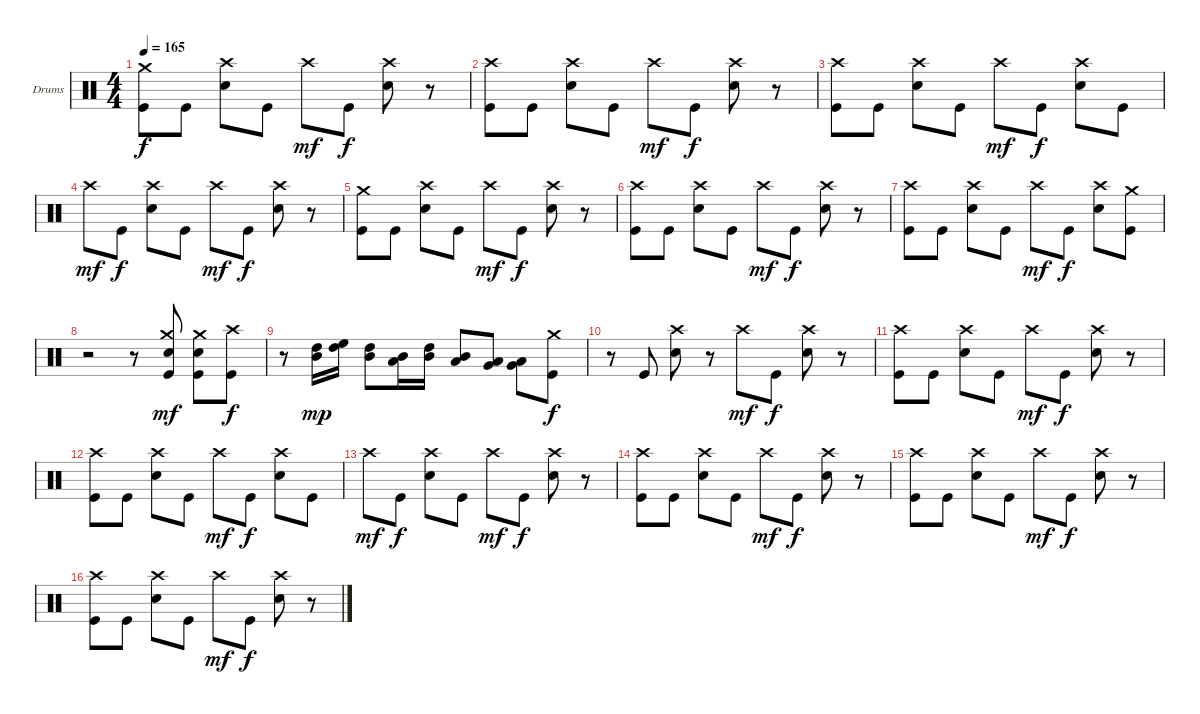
\bracketExtendMode groupsimilarinstruments
\firstSystemTrackNameOrientation horizontal
\otherSystemsTrackNameOrientation horizontal
\track ("Drumkit Midi" "Drums") {instrument percussion}
\staff {score}
\articulation defaults
\ts (4 4)
\tempo 165
\clef neutral
\ks c
("Kick (hit)" "Crash medium (hit)").8{dy f} "Kick (hit)".8 ("Snare (hit) 2" "Crash high (hit)").8 "Kick (hit)".8 "Crash high (hit)".8{dy mf} "Kick (hit)".8{dy f} ("Snare (hit) 2" "Crash high (hit)").8 r.8 |
("Kick (hit)" "Crash high (hit)").8 "Kick (hit)".8 ("Snare (hit) 2" "Crash high (hit)").8 "Kick (hit)".8 "Crash high (hit)".8{dy mf} "Kick (hit)".8{dy f} ("Snare (hit) 2" "Crash high (hit)").8 r.8 |
("Kick (hit)" "Crash high (hit)").8 "Kick (hit)".8 ("Snare (hit) 2" "Crash high (hit)").8 "Kick (hit)".8 "Crash high (hit)".8{dy mf} "Kick (hit)".8{dy f} ("Snare (hit) 2" "Crash high (hit)").8 "Kick (hit)".8 |
"Crash high (hit)".8{dy mf} "Kick (hit)".8{dy f} ("Snare (hit) 2" "Crash high (hit)").8 "Kick (hit)".8 "Crash high (hit)".8{dy mf} "Kick (hit)".8{dy f} ("Snare (hit) 2" "Crash high (hit)").8 r.8 |
("Kick (hit)" "Crash medium (hit)").8 "Kick (hit)".8 ("Snare (hit) 2" "Crash high (hit)").8 "Kick (hit)".8 "Crash high (hit)".8{dy mf} "Kick (hit)".8{dy f} ("Snare (hit) 2" "Crash high (hit)").8 r.8 |
("Kick (hit)" "Crash high (hit)").8 "Kick (hit)".8 ("Snare (hit) 2" "Crash high (hit)").8 "Kick (hit)".8 "Crash high (hit)".8{dy mf} "Kick (hit)".8{dy f} ("Snare (hit) 2" "Crash high (hit)").8 r.8 |
("Kick (hit)" "Crash high (hit)").8 "Kick (hit)".8 ("Snare (hit) 2" "Crash high (hit)").8 "Kick (hit)".8 "Crash high (hit)".8{dy mf} "Kick (hit)".8{dy f} ("Snare (hit) 2" "Crash high (hit)").8 ("Kick (hit)" "Crash medium (hit)").8 |
r.2 r.8 ("Kick (hit)" "Snare (hit) 2" "Crash medium (hit)").8{dy mf} ("Kick (hit)" "Snare (hit) 2" "Crash medium (hit)").8 ("Kick (hit)" "Crash high (hit)").8{dy f} |
r.8 ("High Tom (hit)" "Mid Tom (hit)").16{dy mp} ("High Floor Tom (hit)" "High Tom (hit)").16 ("High Tom (hit)" "Mid Tom (hit)").8 ("Mid Tom (hit)" "Low Tom (hit)").16 ("High Tom (hit)" "Mid Tom (hit)").16 ("Mid Tom (hit)" "Low Tom (hit)").8 ("Low Tom (hit)" "Very Low Tom (hit)").8 ("Very Low Tom (hit)" "Low Tom (hit)").8 ("Kick (hit)" "Crash medium (hit)").8{dy f} |
r.8 "Kick (hit)".8 ("Snare (hit) 2" "Crash high (hit)").8 r.8 "Crash high (hit)".8{dy mf} "Kick (hit)".8{dy f} ("Snare (hit) 2" "Crash high (hit)").8 r.8 |
("Kick (hit)" "Crash high (hit)").8 "Kick (hit)".8 ("Snare (hit) 2" "Crash high (hit)").8 "Kick (hit)".8 "Crash high (hit)".8{dy mf} "Kick (hit)".8{dy f} ("Snare (hit) 2" "Crash high (hit)").8 r.8 |
("Kick (hit)" "Crash high (hit)").8 "Kick (hit)".8 ("Snare (hit) 2" "Crash high (hit)").8 "Kick (hit)".8 "Crash high (hit)".8{dy mf} "Kick (hit)".8{dy f} ("Snare (hit) 2" "Crash high (hit)").8 "Kick (hit)".8 |
"Crash high (hit)".8{dy mf} "Kick (hit)".8{dy f} ("Snare (hit) 2" "Crash high (hit)").8 "Kick (hit)".8 "Crash high (hit)".8{dy mf} "Kick (hit)".8{dy f} ("Snare (hit) 2" "Crash high (hit)").8 r.8 |
("Kick (hit)" "Crash high (hit)").8 "Kick (hit)".8 ("Snare (hit) 2" "Crash high (hit)").8 "Kick (hit)".8 "Crash high (hit)".8{dy mf} "Kick (hit)".8{dy f} ("Snare (hit) 2" "Crash high (hit)").8 r.8 |
("Kick (hit)" "Crash high (hit)").8 "Kick (hit)".8 ("Snare (hit) 2" "Crash high (hit)").8 "Kick (hit)".8 "Crash high (hit)".8{dy mf} "Kick (hit)".8{dy f} ("Snare (hit) 2" "Crash high (hit)").8 r.8 |
("Kick (hit)" "Crash high (hit)").8 "Kick (hit)".8 ("Snare (hit) 2" "Crash high (hit)").8 "Kick (hit)".8 "Crash high (hit)".8{dy mf} "Kick (hit)".8{dy f} ("Snare (hit) 2" "Crash high (hit)").8 r.8
